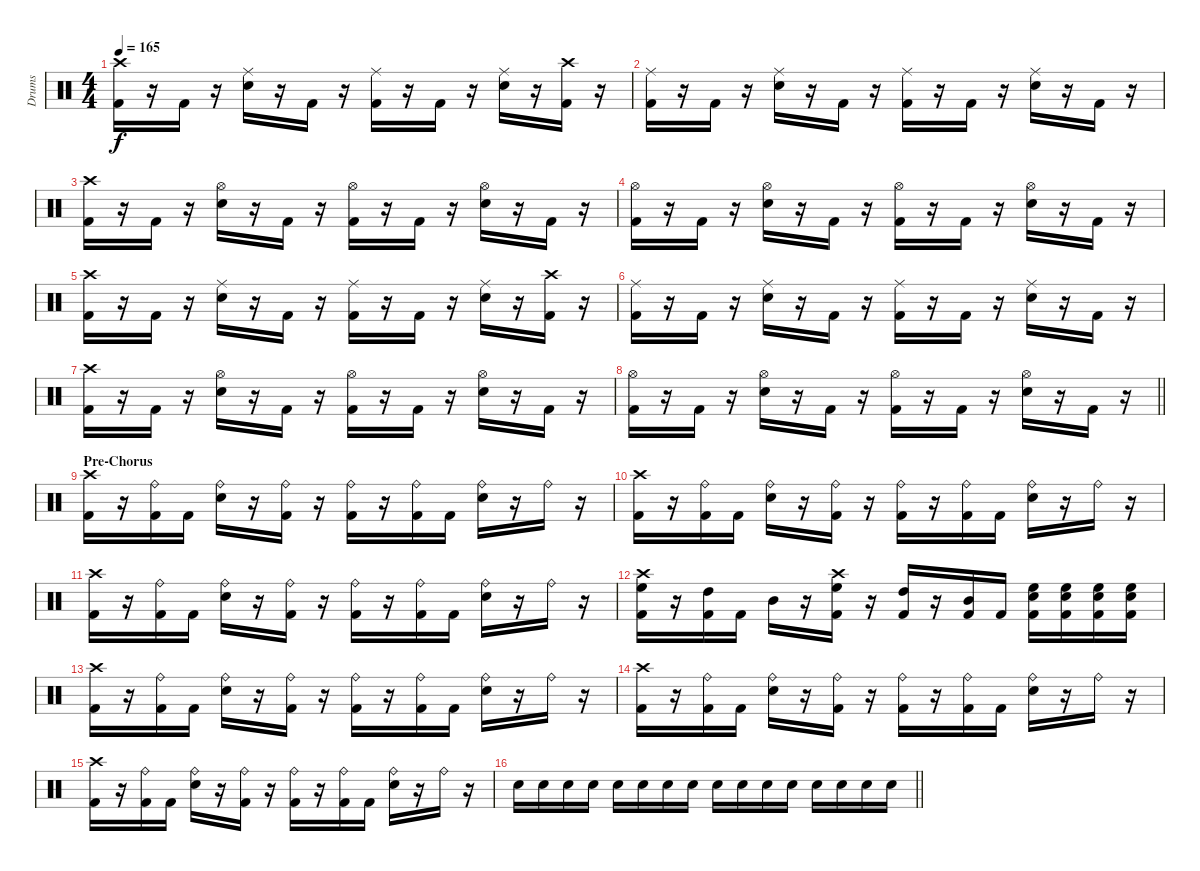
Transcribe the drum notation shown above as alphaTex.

\track ("Drums" "Drums") {instrument percussion}
\staff {score}
\articulation defaults
\ts (4 4)
\tempo 165
\clef neutral
\ks c
("Crash high (hit)" "Kick (hit) 2").16{dy f} r.16 "Kick (hit) 2".16 r.16 ("Ride (middle)" "Snare (hit) 2").16 r.16 "Kick (hit) 2".16 r.16 ("Ride (middle)" "Kick (hit) 2").16 r.16 "Kick (hit) 2".16 r.16 ("Ride (middle)" "Snare (hit) 2").16 r.16 ("Crash high (hit)" "Kick (hit) 2").16 r.16 |
("Ride (middle)" "Kick (hit) 2").16 r.16 "Kick (hit) 2".16 r.16 ("Ride (middle)" "Snare (hit) 2").16 r.16 "Kick (hit) 2".16 r.16 ("Ride (middle)" "Kick (hit) 2").16 r.16 "Kick (hit) 2".16 r.16 ("Ride (middle)" "Snare (hit) 2").16 r.16 "Kick (hit) 2".16 r.16 |
("Crash high (hit)" "Kick (hit) 2").16 r.16 "Kick (hit) 2".16 r.16 ("Hi-Hat (open)" "Snare (hit) 2").16 r.16 "Kick (hit) 2".16 r.16 ("Hi-Hat (open)" "Kick (hit) 2").16 r.16 "Kick (hit) 2".16 r.16 ("Hi-Hat (open)" "Snare (hit) 2").16 r.16 "Kick (hit) 2".16 r.16 |
("Hi-Hat (open)" "Kick (hit) 2").16 r.16 "Kick (hit) 2".16 r.16 ("Hi-Hat (open)" "Snare (hit) 2").16 r.16 "Kick (hit) 2".16 r.16 ("Hi-Hat (open)" "Kick (hit) 2").16 r.16 "Kick (hit) 2".16 r.16 ("Hi-Hat (open)" "Snare (hit) 2").16 r.16 "Kick (hit) 2".16 r.16 |
("Crash high (hit)" "Kick (hit) 2").16 r.16 "Kick (hit) 2".16 r.16 ("Ride (middle)" "Snare (hit) 2").16 r.16 "Kick (hit) 2".16 r.16 ("Ride (middle)" "Kick (hit) 2").16 r.16 "Kick (hit) 2".16 r.16 ("Ride (middle)" "Snare (hit) 2").16 r.16 ("Crash high (hit)" "Kick (hit) 2").16 r.16 |
("Ride (middle)" "Kick (hit) 2").16 r.16 "Kick (hit) 2".16 r.16 ("Ride (middle)" "Snare (hit) 2").16 r.16 "Kick (hit) 2".16 r.16 ("Ride (middle)" "Kick (hit) 2").16 r.16 "Kick (hit) 2".16 r.16 ("Ride (middle)" "Snare (hit) 2").16 r.16 "Kick (hit) 2".16 r.16 |
("Crash high (hit)" "Kick (hit) 2").16 r.16 "Kick (hit) 2".16 r.16 ("Hi-Hat (open)" "Snare (hit) 2").16 r.16 "Kick (hit) 2".16 r.16 ("Hi-Hat (open)" "Kick (hit) 2").16 r.16 "Kick (hit) 2".16 r.16 ("Hi-Hat (open)" "Snare (hit) 2").16 r.16 "Kick (hit) 2".16 r.16 |
\barLineRight lightlight
("Hi-Hat (open)" "Kick (hit) 2").16 r.16 "Kick (hit) 2".16 r.16 ("Hi-Hat (open)" "Snare (hit) 2").16 r.16 "Kick (hit) 2".16 r.16 ("Hi-Hat (open)" "Kick (hit) 2").16 r.16 "Kick (hit) 2".16 r.16 ("Hi-Hat (open)" "Snare (hit) 2").16 r.16 "Kick (hit) 2".16 r.16 |
\section ("" "Pre-Chorus")
("Crash high (hit)" "Kick (hit) 2").16 r.16 ("Ride (bell)" "Kick (hit) 2").16 "Kick (hit) 2".16 ("Ride (bell)" "Snare (hit) 2").16 r.16 ("Ride (bell)" "Kick (hit) 2").16 r.16 ("Ride (bell)" "Kick (hit) 2").16 r.16 ("Ride (bell)" "Kick (hit) 2").16 "Kick (hit) 2".16 ("Ride (bell)" "Snare (hit) 2").16 r.16 "Ride (bell)".16 r.16 |
("Crash high (hit)" "Kick (hit) 2").16 r.16 ("Ride (bell)" "Kick (hit) 2").16 "Kick (hit) 2".16 ("Ride (bell)" "Snare (hit) 2").16 r.16 ("Ride (bell)" "Kick (hit) 2").16 r.16 ("Ride (bell)" "Kick (hit) 2").16 r.16 ("Ride (bell)" "Kick (hit) 2").16 "Kick (hit) 2".16 ("Ride (bell)" "Snare (hit) 2").16 r.16 "Ride (bell)".16 r.16 |
("Crash high (hit)" "Kick (hit) 2").16 r.16 ("Ride (bell)" "Kick (hit) 2").16 "Kick (hit) 2".16 ("Ride (bell)" "Snare (hit) 2").16 r.16 ("Ride (bell)" "Kick (hit) 2").16 r.16 ("Ride (bell)" "Kick (hit) 2").16 r.16 ("Ride (bell)" "Kick (hit) 2").16 "Kick (hit) 2".16 ("Ride (bell)" "Snare (hit) 2").16 r.16 "Ride (bell)".16 r.16 |
("Crash high (hit)" "High Floor Tom (hit)" "Kick (hit) 2").16 r.16 ("High Tom (hit)" "Kick (hit) 2").16 "Kick (hit) 2".16 "Mid Tom (hit)".16 r.16 ("Crash high (hit)" "High Floor Tom (hit)" "Kick (hit) 2").16 r.16 ("High Tom (hit)" "Kick (hit) 2").16 r.16 ("Mid Tom (hit)" "Kick (hit) 2").16 "Kick (hit) 2".16 ("High Floor Tom (hit)" "Snare (hit) 2" "Kick (hit) 2").16 ("High Floor Tom (hit)" "Snare (hit) 2" "Kick (hit) 2").16 ("High Floor Tom (hit)" "Snare (hit) 2" "Kick (hit) 2").16 ("High Floor Tom (hit)" "Snare (hit) 2" "Kick (hit) 2").16 |
("Crash high (hit)" "Kick (hit) 2").16 r.16 ("Ride (bell)" "Kick (hit) 2").16 "Kick (hit) 2".16 ("Ride (bell)" "Snare (hit) 2").16 r.16 ("Ride (bell)" "Kick (hit) 2").16 r.16 ("Ride (bell)" "Kick (hit) 2").16 r.16 ("Ride (bell)" "Kick (hit) 2").16 "Kick (hit) 2".16 ("Ride (bell)" "Snare (hit) 2").16 r.16 "Ride (bell)".16 r.16 |
("Crash high (hit)" "Kick (hit) 2").16 r.16 ("Ride (bell)" "Kick (hit) 2").16 "Kick (hit) 2".16 ("Ride (bell)" "Snare (hit) 2").16 r.16 ("Ride (bell)" "Kick (hit) 2").16 r.16 ("Ride (bell)" "Kick (hit) 2").16 r.16 ("Ride (bell)" "Kick (hit) 2").16 "Kick (hit) 2".16 ("Ride (bell)" "Snare (hit) 2").16 r.16 "Ride (bell)".16 r.16 |
("Crash high (hit)" "Kick (hit) 2").16 r.16 ("Ride (bell)" "Kick (hit) 2").16 "Kick (hit) 2".16 ("Ride (bell)" "Snare (hit) 2").16 r.16 ("Ride (bell)" "Kick (hit) 2").16 r.16 ("Ride (bell)" "Kick (hit) 2").16 r.16 ("Ride (bell)" "Kick (hit) 2").16 "Kick (hit) 2".16 ("Ride (bell)" "Snare (hit) 2").16 r.16 "Ride (bell)".16 r.16 |
\barLineRight lightlight "Snare (hit) 2".16 "Snare (hit) 2".16 "Snare (hit) 2".16 "Snare (hit) 2".16 "Snare (hit) 2".16 "Snare (hit) 2".16 "Snare (hit) 2".16 "Snare (hit) 2".16 "Snare (hit) 2".16 "Snare (hit) 2".16 "Snare (hit) 2".16 "Snare (hit) 2".16 "Snare (hit) 2".16 "Snare (hit) 2".16 "Snare (hit) 2".16 "Snare (hit) 2".16
